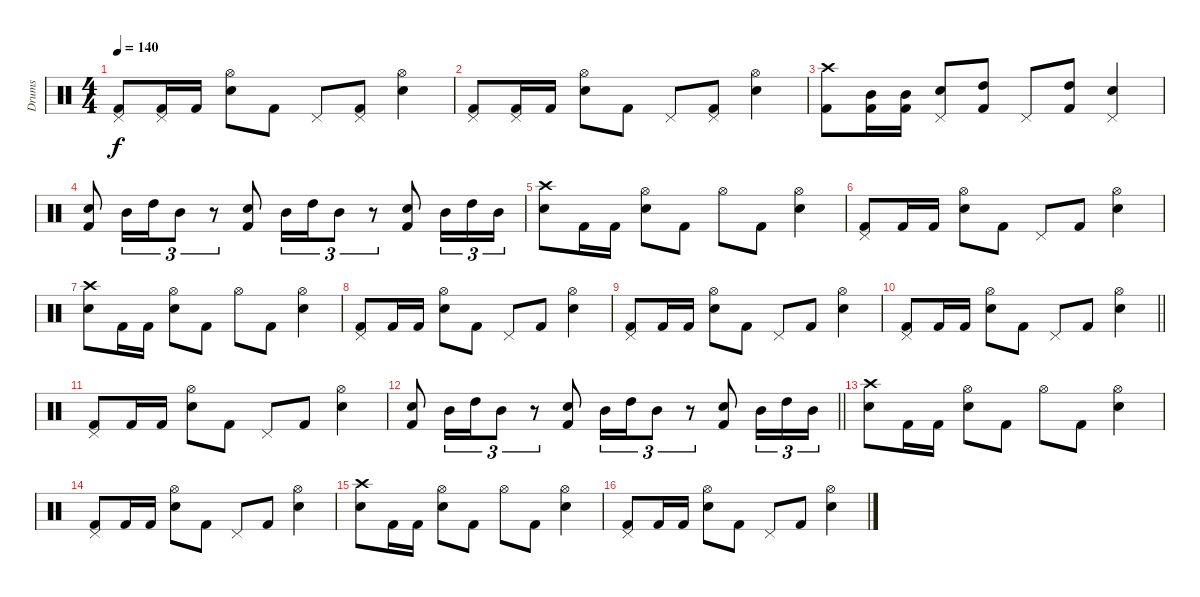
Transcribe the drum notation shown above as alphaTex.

\track ("Drums" "Drums") {instrument percussion}
\staff {score}
\articulation defaults
\ts (4 4)
\tempo 140
\clef neutral
\ks c
("Pedal Hi-Hat (hit)" "Kick (hit) 2").8{dy f} ("Pedal Hi-Hat (hit)" "Kick (hit) 2").16 "Kick (hit) 2".16 ("Hi-Hat (open)" "Electric Snare (hit)").8 "Kick (hit) 2".8 "Pedal Hi-Hat (hit)".8 ("Pedal Hi-Hat (hit)" "Kick (hit) 2").8 ("Hi-Hat (open)" "Electric Snare (hit)").4 |
("Pedal Hi-Hat (hit)" "Kick (hit) 2").8 ("Pedal Hi-Hat (hit)" "Kick (hit) 2").16 "Kick (hit) 2".16 ("Hi-Hat (open)" "Electric Snare (hit)").8 "Kick (hit) 2".8 "Pedal Hi-Hat (hit)".8 ("Pedal Hi-Hat (hit)" "Kick (hit) 2").8 ("Hi-Hat (open)" "Electric Snare (hit)").4 |
("Crash high (hit)" "Kick (hit) 2").8 ("Mid Tom (hit)" "Kick (hit) 2").16 ("Mid Tom (hit)" "Kick (hit) 2").16 ("Pedal Hi-Hat (hit)" "Electric Snare (hit)").8 ("High Tom (hit)" "Kick (hit) 2").8 "Pedal Hi-Hat (hit)".8 ("High Tom (hit)" "Kick (hit) 2").8 ("Pedal Hi-Hat (hit)" "Electric Snare (hit)").4 |
("Electric Snare (hit)" "Kick (hit) 2").8 "Mid Tom (hit)".16{tu (3 2)} "High Tom (hit)".16{tu (3 2)} "Mid Tom (hit)".8{tu (3 2)} r.8{tu (3 2)} ("Electric Snare (hit)" "Kick (hit) 2").8 "Mid Tom (hit)".16{tu (3 2)} "High Tom (hit)".16{tu (3 2)} "Mid Tom (hit)".8{tu (3 2)} r.8{tu (3 2)} ("Electric Snare (hit)" "Kick (hit) 2").8 "Mid Tom (hit)".16{tu (3 2)} "High Tom (hit)".16{tu (3 2)} "Mid Tom (hit)".16{tu (3 2)} |
("Crash high (hit)" "Electric Snare (hit)").8 "Kick (hit) 2".16 "Kick (hit) 2".16 ("Hi-Hat (open)" "Electric Snare (hit)").8 "Kick (hit) 2".8 "Hi-Hat (open)".8 "Kick (hit) 2".8 ("Hi-Hat (open)" "Electric Snare (hit)").4 |
("Pedal Hi-Hat (hit)" "Kick (hit) 2").8 "Kick (hit) 2".16 "Kick (hit) 2".16 ("Hi-Hat (open)" "Electric Snare (hit)").8 "Kick (hit) 2".8 "Pedal Hi-Hat (hit)".8 "Kick (hit) 2".8 ("Hi-Hat (open)" "Electric Snare (hit)").4 |
("Crash high (hit)" "Electric Snare (hit)").8 "Kick (hit) 2".16 "Kick (hit) 2".16 ("Hi-Hat (open)" "Electric Snare (hit)").8 "Kick (hit) 2".8 "Hi-Hat (open)".8 "Kick (hit) 2".8 ("Hi-Hat (open)" "Electric Snare (hit)").4 |
("Pedal Hi-Hat (hit)" "Kick (hit) 2").8 "Kick (hit) 2".16 "Kick (hit) 2".16 ("Hi-Hat (open)" "Electric Snare (hit)").8 "Kick (hit) 2".8 "Pedal Hi-Hat (hit)".8 "Kick (hit) 2".8 ("Hi-Hat (open)" "Electric Snare (hit)").4 |
("Pedal Hi-Hat (hit)" "Kick (hit) 2").8 "Kick (hit) 2".16 "Kick (hit) 2".16 ("Hi-Hat (open)" "Electric Snare (hit)").8 "Kick (hit) 2".8 "Pedal Hi-Hat (hit)".8 "Kick (hit) 2".8 ("Hi-Hat (open)" "Electric Snare (hit)").4 |
\barLineRight lightlight
("Pedal Hi-Hat (hit)" "Kick (hit) 2").8 "Kick (hit) 2".16 "Kick (hit) 2".16 ("Hi-Hat (open)" "Electric Snare (hit)").8 "Kick (hit) 2".8 "Pedal Hi-Hat (hit)".8 "Kick (hit) 2".8 ("Hi-Hat (open)" "Electric Snare (hit)").4 |
("Pedal Hi-Hat (hit)" "Kick (hit) 2").8 "Kick (hit) 2".16 "Kick (hit) 2".16 ("Hi-Hat (open)" "Electric Snare (hit)").8 "Kick (hit) 2".8 "Pedal Hi-Hat (hit)".8 "Kick (hit) 2".8 ("Hi-Hat (open)" "Electric Snare (hit)").4 |
\barLineRight lightlight
("Electric Snare (hit)" "Kick (hit) 2").8 "Mid Tom (hit)".16{tu (3 2)} "High Tom (hit)".16{tu (3 2)} "Mid Tom (hit)".8{tu (3 2)} r.8{tu (3 2)} ("Electric Snare (hit)" "Kick (hit) 2").8 "Mid Tom (hit)".16{tu (3 2)} "High Tom (hit)".16{tu (3 2)} "Mid Tom (hit)".8{tu (3 2)} r.8{tu (3 2)} ("Electric Snare (hit)" "Kick (hit) 2").8 "Mid Tom (hit)".16{tu (3 2)} "High Tom (hit)".16{tu (3 2)} "Mid Tom (hit)".16{tu (3 2)} |
("Crash high (hit)" "Electric Snare (hit)").8 "Kick (hit) 2".16 "Kick (hit) 2".16 ("Hi-Hat (open)" "Electric Snare (hit)").8 "Kick (hit) 2".8 "Hi-Hat (open)".8 "Kick (hit) 2".8 ("Hi-Hat (open)" "Electric Snare (hit)").4 |
("Pedal Hi-Hat (hit)" "Kick (hit) 2").8 "Kick (hit) 2".16 "Kick (hit) 2".16 ("Hi-Hat (open)" "Electric Snare (hit)").8 "Kick (hit) 2".8 "Pedal Hi-Hat (hit)".8 "Kick (hit) 2".8 ("Hi-Hat (open)" "Electric Snare (hit)").4 |
("Crash high (hit)" "Electric Snare (hit)").8 "Kick (hit) 2".16 "Kick (hit) 2".16 ("Hi-Hat (open)" "Electric Snare (hit)").8 "Kick (hit) 2".8 "Hi-Hat (open)".8 "Kick (hit) 2".8 ("Hi-Hat (open)" "Electric Snare (hit)").4 |
("Pedal Hi-Hat (hit)" "Kick (hit) 2").8 "Kick (hit) 2".16 "Kick (hit) 2".16 ("Hi-Hat (open)" "Electric Snare (hit)").8 "Kick (hit) 2".8 "Pedal Hi-Hat (hit)".8 "Kick (hit) 2".8 ("Hi-Hat (open)" "Electric Snare (hit)").4
